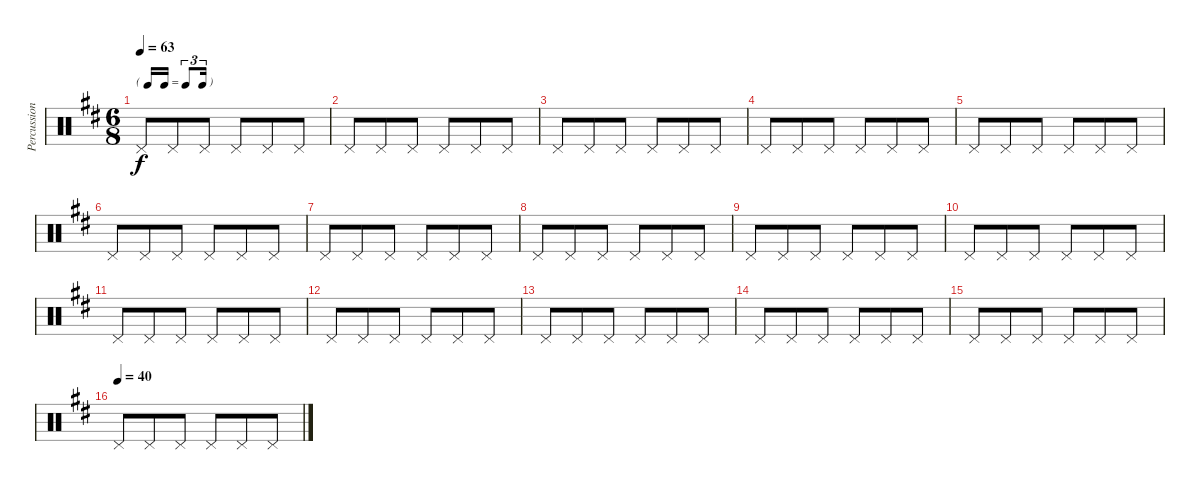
\track ("Percussion" "Percussion") {instrument percussion}
\staff {score}
\articulation defaults
\ts (6 8)
\tf triplet16th
\tempo 63
\clef neutral
\ks bminor "Pedal Hi-Hat (hit)".8{dy f} "Pedal Hi-Hat (hit)".8 "Pedal Hi-Hat (hit)".8 "Pedal Hi-Hat (hit)".8 "Pedal Hi-Hat (hit)".8 "Pedal Hi-Hat (hit)".8
|
"Pedal Hi-Hat (hit)".8 "Pedal Hi-Hat (hit)".8 "Pedal Hi-Hat (hit)".8 "Pedal Hi-Hat (hit)".8 "Pedal Hi-Hat (hit)".8 "Pedal Hi-Hat (hit)".8 |
"Pedal Hi-Hat (hit)".8 "Pedal Hi-Hat (hit)".8 "Pedal Hi-Hat (hit)".8 "Pedal Hi-Hat (hit)".8 "Pedal Hi-Hat (hit)".8 "Pedal Hi-Hat (hit)".8 |
"Pedal Hi-Hat (hit)".8 "Pedal Hi-Hat (hit)".8 "Pedal Hi-Hat (hit)".8 "Pedal Hi-Hat (hit)".8 "Pedal Hi-Hat (hit)".8 "Pedal Hi-Hat (hit)".8 |
"Pedal Hi-Hat (hit)".8 "Pedal Hi-Hat (hit)".8 "Pedal Hi-Hat (hit)".8 "Pedal Hi-Hat (hit)".8 "Pedal Hi-Hat (hit)".8 "Pedal Hi-Hat (hit)".8 |
"Pedal Hi-Hat (hit)".8 "Pedal Hi-Hat (hit)".8 "Pedal Hi-Hat (hit)".8 "Pedal Hi-Hat (hit)".8 "Pedal Hi-Hat (hit)".8 "Pedal Hi-Hat (hit)".8 |
"Pedal Hi-Hat (hit)".8 "Pedal Hi-Hat (hit)".8 "Pedal Hi-Hat (hit)".8 "Pedal Hi-Hat (hit)".8 "Pedal Hi-Hat (hit)".8 "Pedal Hi-Hat (hit)".8 |
"Pedal Hi-Hat (hit)".8 "Pedal Hi-Hat (hit)".8 "Pedal Hi-Hat (hit)".8 "Pedal Hi-Hat (hit)".8 "Pedal Hi-Hat (hit)".8 "Pedal Hi-Hat (hit)".8 |
"Pedal Hi-Hat (hit)".8 "Pedal Hi-Hat (hit)".8 "Pedal Hi-Hat (hit)".8 "Pedal Hi-Hat (hit)".8 "Pedal Hi-Hat (hit)".8 "Pedal Hi-Hat (hit)".8 |
"Pedal Hi-Hat (hit)".8 "Pedal Hi-Hat (hit)".8 "Pedal Hi-Hat (hit)".8 "Pedal Hi-Hat (hit)".8 "Pedal Hi-Hat (hit)".8 "Pedal Hi-Hat (hit)".8 |
"Pedal Hi-Hat (hit)".8 "Pedal Hi-Hat (hit)".8 "Pedal Hi-Hat (hit)".8 "Pedal Hi-Hat (hit)".8 "Pedal Hi-Hat (hit)".8 "Pedal Hi-Hat (hit)".8 |
"Pedal Hi-Hat (hit)".8 "Pedal Hi-Hat (hit)".8 "Pedal Hi-Hat (hit)".8 "Pedal Hi-Hat (hit)".8 "Pedal Hi-Hat (hit)".8 "Pedal Hi-Hat (hit)".8 |
"Pedal Hi-Hat (hit)".8 "Pedal Hi-Hat (hit)".8 "Pedal Hi-Hat (hit)".8 "Pedal Hi-Hat (hit)".8 "Pedal Hi-Hat (hit)".8 "Pedal Hi-Hat (hit)".8 |
"Pedal Hi-Hat (hit)".8 "Pedal Hi-Hat (hit)".8 "Pedal Hi-Hat (hit)".8 "Pedal Hi-Hat (hit)".8 "Pedal Hi-Hat (hit)".8 "Pedal Hi-Hat (hit)".8 |
"Pedal Hi-Hat (hit)".8 "Pedal Hi-Hat (hit)".8 "Pedal Hi-Hat (hit)".8 "Pedal Hi-Hat (hit)".8 "Pedal Hi-Hat (hit)".8 "Pedal Hi-Hat (hit)".8 |
\tempo (40)
"Pedal Hi-Hat (hit)".8 "Pedal Hi-Hat (hit)".8 "Pedal Hi-Hat (hit)".8 "Pedal Hi-Hat (hit)".8 "Pedal Hi-Hat (hit)".8 "Pedal Hi-Hat (hit)".8
